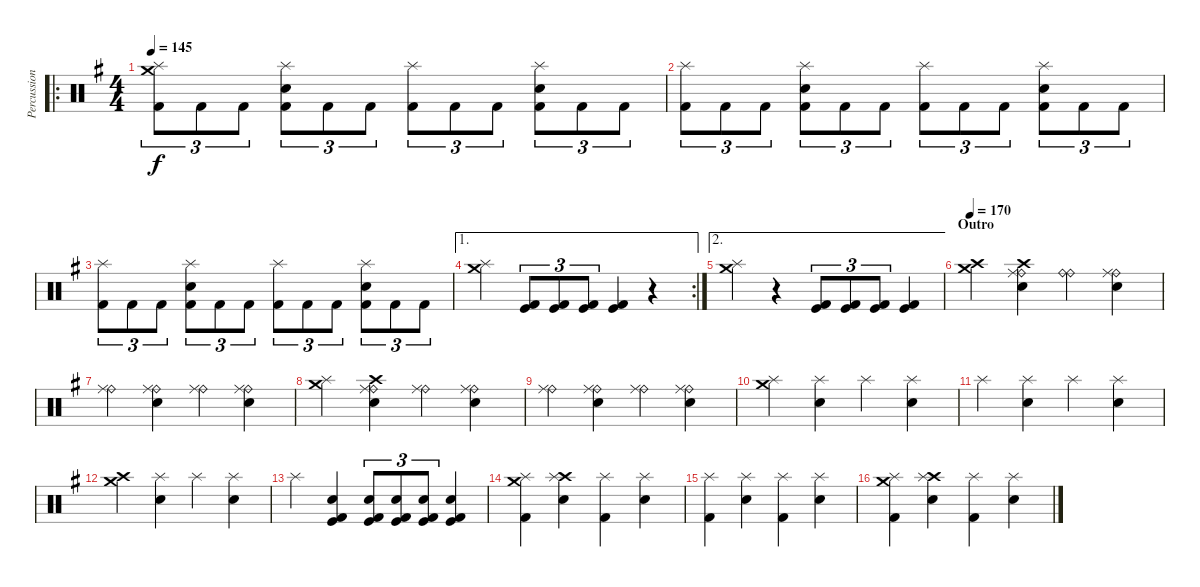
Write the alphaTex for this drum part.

\track ("Percussion" "Percussion") {instrument percussion}
\staff {score}
\articulation defaults
\ro
\ts (4 4)
\tempo 145
\clef neutral
\ks eminor
("Crash medium (hit)" "Splash (hit)" "Kick (hit) 2").8{tu (3 2) dy f} "Kick (hit) 2".8{tu (3 2)} "Kick (hit) 2".8{tu (3 2)} ("Electric Snare (hit)" "Splash (hit)" "Kick (hit) 2").8{tu (3 2)} "Kick (hit) 2".8{tu (3 2)} "Kick (hit) 2".8{tu (3 2)} ("Splash (hit)" "Kick (hit) 2").8{tu (3 2)} "Kick (hit) 2".8{tu (3 2)} "Kick (hit) 2".8{tu (3 2)} ("Electric Snare (hit)" "Splash (hit)" "Kick (hit) 2").8{tu (3 2)} "Kick (hit) 2".8{tu (3 2)} "Kick (hit) 2".8{tu (3 2)} |
("Splash (hit)" "Kick (hit) 2").8{tu (3 2)} "Kick (hit) 2".8{tu (3 2)} "Kick (hit) 2".8{tu (3 2)} ("Electric Snare (hit)" "Splash (hit)" "Kick (hit) 2").8{tu (3 2)} "Kick (hit) 2".8{tu (3 2)} "Kick (hit) 2".8{tu (3 2)} ("Splash (hit)" "Kick (hit) 2").8{tu (3 2)} "Kick (hit) 2".8{tu (3 2)} "Kick (hit) 2".8{tu (3 2)} ("Electric Snare (hit)" "Splash (hit)" "Kick (hit) 2").8{tu (3 2)} "Kick (hit) 2".8{tu (3 2)} "Kick (hit) 2".8{tu (3 2)} |
("Splash (hit)" "Kick (hit) 2").8{tu (3 2)} "Kick (hit) 2".8{tu (3 2)} "Kick (hit) 2".8{tu (3 2)} ("Electric Snare (hit)" "Splash (hit)" "Kick (hit) 2").8{tu (3 2)} "Kick (hit) 2".8{tu (3 2)} "Kick (hit) 2".8{tu (3 2)} ("Splash (hit)" "Kick (hit) 2").8{tu (3 2)} "Kick (hit) 2".8{tu (3 2)} "Kick (hit) 2".8{tu (3 2)} ("Electric Snare (hit)" "Splash (hit)" "Kick (hit) 2").8{tu (3 2)} "Kick (hit) 2".8{tu (3 2)} "Kick (hit) 2".8{tu (3 2)} |
\ae 1
\rc 2
("Crash medium (hit)" "Splash (hit)").4 ("Kick (hit)" "Kick (hit) 2").8{tu (3 2)} ("Kick (hit)" "Kick (hit) 2").8{tu (3 2)} ("Kick (hit)" "Kick (hit) 2").8{tu (3 2)} ("Kick (hit)" "Kick (hit) 2").4 r.4 |
\ae 2
("Crash medium (hit)" "Splash (hit)").4 r.4 ("Kick (hit)" "Kick (hit) 2").8{tu (3 2)} ("Kick (hit)" "Kick (hit) 2").8{tu (3 2)} ("Kick (hit)" "Kick (hit) 2").8{tu (3 2)} ("Kick (hit)" "Kick (hit) 2").4 |
\section ("" "Outro")
\tempo 170
("Crash medium (hit)" "Crash high (hit)").4 ("Crash high (hit)" "Ride (bell)" "Ride (middle)" "Electric Snare (hit)").4 ("Ride (bell)" "Ride (bell)").4 ("Ride (bell)" "Ride (middle)" "Electric Snare (hit)").4 |
("Ride (bell)" "Ride (middle)").4 ("Ride (bell)" "Ride (middle)" "Electric Snare (hit)").4 ("Ride (bell)" "Ride (middle)").4 ("Ride (bell)" "Ride (middle)" "Electric Snare (hit)").4 |
("Crash medium (hit)" "Splash (hit)").4 ("Crash high (hit)" "Ride (bell)" "Ride (middle)" "Electric Snare (hit)").4 ("Ride (bell)" "Ride (middle)").4 ("Ride (bell)" "Ride (middle)" "Electric Snare (hit)").4 |
("Ride (bell)" "Ride (middle)").4 ("Ride (bell)" "Ride (middle)" "Electric Snare (hit)").4 ("Ride (bell)" "Ride (middle)").4 ("Ride (bell)" "Ride (middle)" "Electric Snare (hit)").4 |
("Crash medium (hit)" "Splash (hit)").4 ("Splash (hit)" "Electric Snare (hit)").4 "Splash (hit)".4 ("Splash (hit)" "Electric Snare (hit)").4 |
"Splash (hit)".4 ("Splash (hit)" "Electric Snare (hit)").4 "Splash (hit)".4 ("Splash (hit)" "Electric Snare (hit)").4 |
("Crash high (hit)" "Crash medium (hit)").4 ("Splash (hit)" "Electric Snare (hit)").4 "Splash (hit)".4 ("Splash (hit)" "Electric Snare (hit)").4 |
"Splash (hit)".4 ("Snare (hit) 2" "Kick (hit)" "Kick (hit) 2").4 ("Snare (hit) 2" "Kick (hit)" "Kick (hit) 2").8{tu (3 2)} ("Snare (hit) 2" "Kick (hit)" "Kick (hit) 2").8{tu (3 2)} ("Snare (hit) 2" "Kick (hit)" "Kick (hit) 2").8{tu (3 2)} ("Snare (hit) 2" "Kick (hit)" "Kick (hit) 2").4 |
("Crash medium (hit)" "Splash (hit)" "Kick (hit) 2").4 ("Crash high (hit)" "Splash (hit)" "Electric Snare (hit)").4 ("Splash (hit)" "Kick (hit) 2").4 ("Splash (hit)" "Electric Snare (hit)").4 |
("Splash (hit)" "Kick (hit) 2").4 ("Splash (hit)" "Electric Snare (hit)").4 ("Splash (hit)" "Kick (hit) 2").4 ("Splash (hit)" "Electric Snare (hit)").4 |
("Crash medium (hit)" "Splash (hit)" "Kick (hit) 2").4 ("Crash high (hit)" "Splash (hit)" "Electric Snare (hit)").4 ("Splash (hit)" "Kick (hit) 2").4 ("Splash (hit)" "Electric Snare (hit)").4
